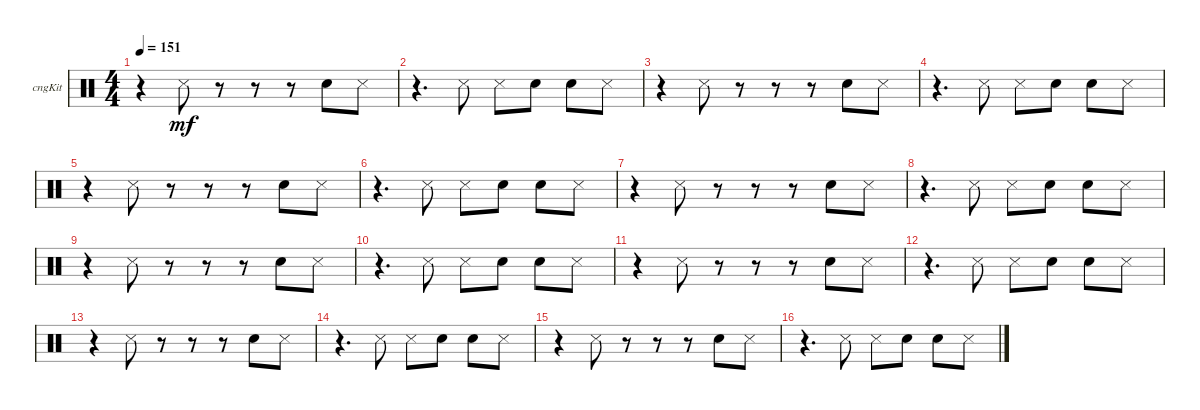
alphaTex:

\bracketExtendMode groupsimilarinstruments
\firstSystemTrackNameOrientation horizontal
\otherSystemsTrackNameOrientation horizontal
\track ("Congas" "cngKit") {instrument percussion}
\staff {score}
\articulation defaults
\ts (4 4)
\tempo 151
\clef neutral
\ks aminor
r.4{dy mf} "Snare (side stick) 3".8 r.8 r.8 r.8 "Snare (hit) 2".8 "Snare (side stick) 3".8 |
r.4{d} "Snare (side stick) 3".8 "Snare (side stick) 3".8 "Snare (hit) 2".8 "Snare (hit) 2".8 "Snare (side stick) 3".8 |
r.4 "Snare (side stick) 3".8 r.8 r.8 r.8 "Snare (hit) 2".8 "Snare (side stick) 3".8 |
r.4{d} "Snare (side stick) 3".8 "Snare (side stick) 3".8 "Snare (hit) 2".8 "Snare (hit) 2".8 "Snare (side stick) 3".8 |
r.4 "Snare (side stick) 3".8 r.8 r.8 r.8 "Snare (hit) 2".8 "Snare (side stick) 3".8 |
r.4{d} "Snare (side stick) 3".8 "Snare (side stick) 3".8 "Snare (hit) 2".8 "Snare (hit) 2".8 "Snare (side stick) 3".8 |
r.4 "Snare (side stick) 3".8 r.8 r.8 r.8 "Snare (hit) 2".8 "Snare (side stick) 3".8 |
r.4{d} "Snare (side stick) 3".8 "Snare (side stick) 3".8 "Snare (hit) 2".8 "Snare (hit) 2".8 "Snare (side stick) 3".8 |
r.4 "Snare (side stick) 3".8 r.8 r.8 r.8 "Snare (hit) 2".8 "Snare (side stick) 3".8 |
r.4{d} "Snare (side stick) 3".8 "Snare (side stick) 3".8 "Snare (hit) 2".8 "Snare (hit) 2".8 "Snare (side stick) 3".8 |
r.4 "Snare (side stick) 3".8 r.8 r.8 r.8 "Snare (hit) 2".8 "Snare (side stick) 3".8 |
r.4{d} "Snare (side stick) 3".8 "Snare (side stick) 3".8 "Snare (hit) 2".8 "Snare (hit) 2".8 "Snare (side stick) 3".8 |
r.4 "Snare (side stick) 3".8 r.8 r.8 r.8 "Snare (hit) 2".8 "Snare (side stick) 3".8 |
r.4{d} "Snare (side stick) 3".8 "Snare (side stick) 3".8 "Snare (hit) 2".8 "Snare (hit) 2".8 "Snare (side stick) 3".8 |
r.4 "Snare (side stick) 3".8 r.8 r.8 r.8 "Snare (hit) 2".8 "Snare (side stick) 3".8 |
r.4{d} "Snare (side stick) 3".8 "Snare (side stick) 3".8 "Snare (hit) 2".8 "Snare (hit) 2".8 "Snare (side stick) 3".8
